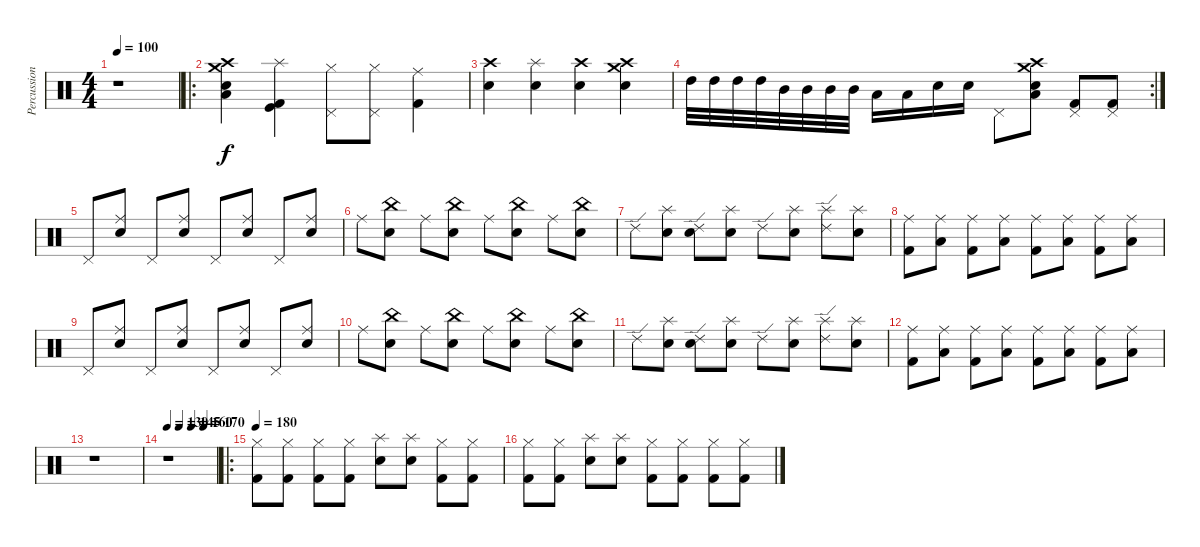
\track ("Percussion" "Percussion") {instrument percussion}
\staff {score}
\articulation defaults
\ts (4 4)
\tempo 100
\clef neutral
\ks c
r.1{dy pp} |
\ro
("Crash high (hit)" "Crash medium (hit)" "Electric Snare (hit)" "Low Tom (hit)").4{dy f} ("Splash (hit)" "Kick (hit)" "Kick (hit) 2").4 ("Pedal Hi-Hat (hit)" "Hi-Hat (closed)").8 ("Pedal Hi-Hat (hit)" "Hi-Hat (closed)").8 ("Ride (middle)" "Kick (hit) 2").4 |
("Crash high (hit)" "Electric Snare (hit)").4 ("Splash (hit)" "Electric Snare (hit)").4 ("Crash high (hit)" "Electric Snare (hit)").4 ("Crash medium (hit)" "Crash high (hit)" "Snare (hit) 2").4 |
\rc 2 "High Tom (hit)".32 "High Tom (hit)".32 "High Tom (hit)".32 "High Tom (hit)".32 "Mid Tom (hit)".32 "Mid Tom (hit)".32 "Mid Tom (hit)".32 "Mid Tom (hit)".32 "Low Tom (hit)".16 "Low Tom (hit)".16 "Electric Snare (hit)".16 "Electric Snare (hit)".16 "Pedal Hi-Hat (hit)".8
("Crash high (hit)" "Crash medium (hit)" "Electric Snare (hit)" "Low Tom (hit)").8 ("Pedal Hi-Hat (hit)" "Kick (hit) 2").8 ("Pedal Hi-Hat (hit)" "Kick (hit) 2").8 |
"Pedal Hi-Hat (hit)".8 ("Electric Snare (hit)" "Ride (middle)").8 "Pedal Hi-Hat (hit)".8 ("Electric Snare (hit)" "Ride (middle)").8 "Pedal Hi-Hat (hit)".8 ("Electric Snare (hit)" "Ride (middle)").8 "Pedal Hi-Hat (hit)".8 ("Electric Snare (hit)" "Ride (middle)").8 |
"Ride (middle)".8 ("Electric Snare (hit)" "China (hit)").8 "Ride (middle)".8 ("Electric Snare (hit)" "China (hit)").8 "Ride (middle)".8 ("Electric Snare (hit)" "China (hit)").8 "Ride (middle)".8 ("Electric Snare (hit)" "China (hit)").8 |
"Ride (edge) 2".8 ("Electric Snare (hit)" "Splash (hit)").8 ("Ride (edge) 2" "Snare (hit)").8 ("Electric Snare (hit)" "Splash (hit)").8 "Ride (edge) 2".8 ("Electric Snare (hit)" "Splash (hit)").8 ("Ride (edge) 2" "Splash (hit)").8 ("Electric Snare (hit)" "Splash (hit)").8 |
("Ride (middle)" "Kick (hit) 2").8 ("Ride (middle)" "Low Floor Tom (hit)").8 ("Ride (middle)" "Kick (hit) 2").8 ("Ride (middle)" "Low Floor Tom (hit)").8 ("Ride (middle)" "Kick (hit) 2").8 ("Ride (middle)" "Low Floor Tom (hit)").8 ("Ride (middle)" "Kick (hit) 2").8 ("Ride (middle)" "Low Floor Tom (hit)").8 |
"Pedal Hi-Hat (hit)".8 ("Electric Snare (hit)" "Ride (middle)").8 "Pedal Hi-Hat (hit)".8 ("Electric Snare (hit)" "Ride (middle)").8 "Pedal Hi-Hat (hit)".8 ("Electric Snare (hit)" "Ride (middle)").8 "Pedal Hi-Hat (hit)".8 ("Electric Snare (hit)" "Ride (middle)").8 |
"Ride (middle)".8 ("Electric Snare (hit)" "China (hit)").8 "Ride (middle)".8 ("Electric Snare (hit)" "China (hit)").8 "Ride (middle)".8 ("Electric Snare (hit)" "China (hit)").8 "Ride (middle)".8 ("Electric Snare (hit)" "China (hit)").8 |
"Ride (edge) 2".8 ("Electric Snare (hit)" "Splash (hit)").8 ("Ride (edge) 2" "Snare (hit)").8 ("Electric Snare (hit)" "Splash (hit)").8 "Ride (edge) 2".8 ("Electric Snare (hit)" "Splash (hit)").8 ("Ride (edge) 2" "Splash (hit)").8 ("Electric Snare (hit)" "Splash (hit)").8 |
("Ride (middle)" "Kick (hit) 2").8 ("Ride (middle)" "Low Floor Tom (hit)").8 ("Ride (middle)" "Kick (hit) 2").8 ("Ride (middle)" "Low Floor Tom (hit)").8 ("Ride (middle)" "Kick (hit) 2").8 ("Ride (middle)" "Low Floor Tom (hit)").8 ("Ride (middle)" "Kick (hit) 2").8 ("Ride (middle)" "Low Floor Tom (hit)").8 |
r.1 |
\tempo 130
\tempo (145 0.25)
\tempo (160 0.5)
\tempo (170 0.75)
r.1 |
\ro
\tempo 180
("Hi-Hat (closed)" "Kick (hit) 2").8 ("Hi-Hat (closed)" "Kick (hit) 2").8 ("Hi-Hat (closed)" "Kick (hit) 2").8 ("Hi-Hat (closed)" "Kick (hit) 2").8 ("Splash (hit)" "Electric Snare (hit)").8 ("Splash (hit)" "Electric Snare (hit)").8 ("Hi-Hat (closed)" "Kick (hit) 2").8 ("Hi-Hat (closed)" "Kick (hit) 2").8 |
("Hi-Hat (closed)" "Kick (hit) 2").8 ("Hi-Hat (closed)" "Kick (hit) 2").8 ("Splash (hit)" "Electric Snare (hit)").8 ("Splash (hit)" "Electric Snare (hit)").8 ("Hi-Hat (closed)" "Kick (hit) 2").8 ("Hi-Hat (closed)" "Kick (hit) 2").8 ("Hi-Hat (closed)" "Kick (hit) 2").8 ("Hi-Hat (closed)" "Kick (hit) 2").8
